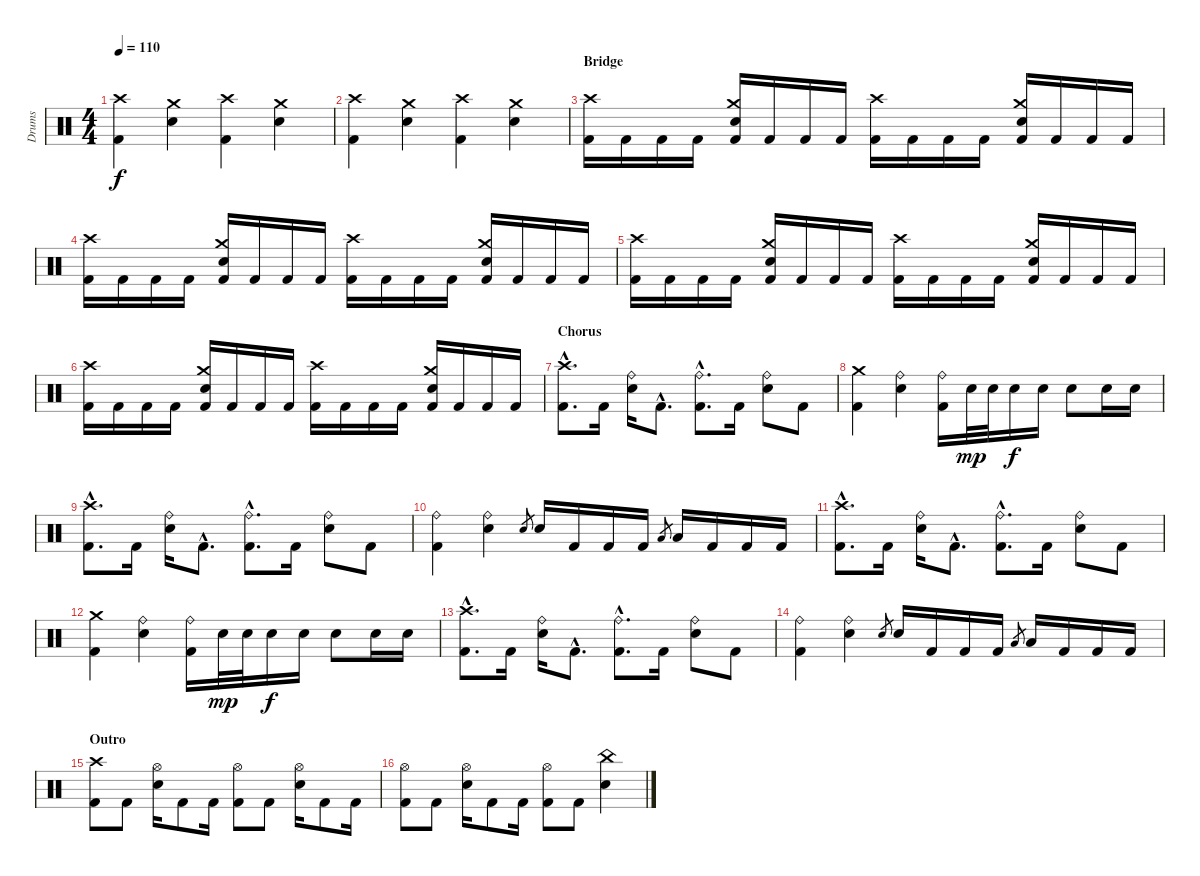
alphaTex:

\track ("Drums" "Drums") {instrument percussion}
\staff {score}
\articulation defaults
\ts (4 4)
\tempo 110
\clef neutral
\ks c
("Crash high (hit)" "Kick (hit) 2").4{dy f} ("Crash medium (hit)" "Electric Snare (hit)").4 ("Crash high (hit)" "Kick (hit) 2").4 ("Crash medium (hit)" "Electric Snare (hit)").4 |
("Crash high (hit)" "Kick (hit) 2").4 ("Crash medium (hit)" "Electric Snare (hit)").4 ("Crash high (hit)" "Kick (hit) 2").4 ("Crash medium (hit)" "Electric Snare (hit)").4 |
\section ("" "Bridge")
("Crash high (hit)" "Kick (hit) 2").16 "Kick (hit) 2".16 "Kick (hit) 2".16 "Kick (hit) 2".16 ("Crash medium (hit)" "Electric Snare (hit)" "Kick (hit) 2").16 "Kick (hit) 2".16 "Kick (hit) 2".16 "Kick (hit) 2".16 ("Crash high (hit)" "Kick (hit) 2").16 "Kick (hit) 2".16 "Kick (hit) 2".16 "Kick (hit) 2".16 ("Crash medium (hit)" "Electric Snare (hit)" "Kick (hit) 2").16 "Kick (hit) 2".16 "Kick (hit) 2".16 "Kick (hit) 2".16 |
("Crash high (hit)" "Kick (hit) 2").16 "Kick (hit) 2".16 "Kick (hit) 2".16 "Kick (hit) 2".16 ("Crash medium (hit)" "Electric Snare (hit)" "Kick (hit) 2").16 "Kick (hit) 2".16 "Kick (hit) 2".16 "Kick (hit) 2".16 ("Crash high (hit)" "Kick (hit) 2").16 "Kick (hit) 2".16 "Kick (hit) 2".16 "Kick (hit) 2".16 ("Crash medium (hit)" "Electric Snare (hit)" "Kick (hit) 2").16 "Kick (hit) 2".16 "Kick (hit) 2".16 "Kick (hit) 2".16 |
("Crash high (hit)" "Kick (hit) 2").16 "Kick (hit) 2".16 "Kick (hit) 2".16 "Kick (hit) 2".16 ("Crash medium (hit)" "Electric Snare (hit)" "Kick (hit) 2").16 "Kick (hit) 2".16 "Kick (hit) 2".16 "Kick (hit) 2".16 ("Crash high (hit)" "Kick (hit) 2").16 "Kick (hit) 2".16 "Kick (hit) 2".16 "Kick (hit) 2".16 ("Crash medium (hit)" "Electric Snare (hit)" "Kick (hit) 2").16 "Kick (hit) 2".16 "Kick (hit) 2".16 "Kick (hit) 2".16 |
("Crash high (hit)" "Kick (hit) 2").16 "Kick (hit) 2".16 "Kick (hit) 2".16 "Kick (hit) 2".16 ("Crash medium (hit)" "Electric Snare (hit)" "Kick (hit) 2").16 "Kick (hit) 2".16 "Kick (hit) 2".16 "Kick (hit) 2".16 ("Crash high (hit)" "Kick (hit) 2").16 "Kick (hit) 2".16 "Kick (hit) 2".16 "Kick (hit) 2".16 ("Crash medium (hit)" "Electric Snare (hit)" "Kick (hit) 2").16 "Kick (hit) 2".16 "Kick (hit) 2".16 "Kick (hit) 2".16 |
\section ("" "Chorus")
("Crash high (hit)"{hac} "Kick (hit) 2"{hac}).8{d} "Kick (hit) 2".16 ("Ride (bell)" "Electric Snare (hit)").16 "Kick (hit) 2"{hac}.8{d} ("Ride (bell)"{hac} "Kick (hit) 2"{hac}).8{d} "Kick (hit) 2".16 ("Ride (bell)" "Electric Snare (hit)").8 "Kick (hit) 2".8 |
("Crash medium (hit)" "Kick (hit) 2").4 ("Ride (bell)" "Electric Snare (hit)").4 ("Ride (bell)" "Kick (hit) 2").16 "Electric Snare (hit)".32{dy mp} "Electric Snare (hit)".32 "Electric Snare (hit)".16{dy f} "Electric Snare (hit)".16 "Electric Snare (hit)".8 "Electric Snare (hit)".16 "Electric Snare (hit)".16 |
("Crash high (hit)"{hac} "Kick (hit) 2"{hac}).8{d} "Kick (hit) 2".16 ("Ride (bell)" "Electric Snare (hit)").16 "Kick (hit) 2"{hac}.8{d} ("Ride (bell)"{hac} "Kick (hit) 2"{hac}).8{d} "Kick (hit) 2".16 ("Ride (bell)" "Electric Snare (hit)").8 "Kick (hit) 2".8 |
("Ride (bell)" "Kick (hit) 2").4 ("Ride (bell)" "Electric Snare (hit)").4 "Electric Snare (hit)".8{gr} "Electric Snare (hit)".16 "Kick (hit) 2".16 "Kick (hit) 2".16 "Kick (hit) 2".16 "Low Tom (hit)".8{gr} "Low Tom (hit)".16 "Kick (hit) 2".16 "Kick (hit) 2".16 "Kick (hit) 2".16 |
("Crash high (hit)"{hac} "Kick (hit) 2"{hac}).8{d} "Kick (hit) 2".16 ("Ride (bell)" "Electric Snare (hit)").16 "Kick (hit) 2"{hac}.8{d} ("Ride (bell)"{hac} "Kick (hit) 2"{hac}).8{d} "Kick (hit) 2".16 ("Ride (bell)" "Electric Snare (hit)").8 "Kick (hit) 2".8 |
("Crash medium (hit)" "Kick (hit) 2").4 ("Ride (bell)" "Electric Snare (hit)").4 ("Ride (bell)" "Kick (hit) 2").16 "Electric Snare (hit)".32{dy mp} "Electric Snare (hit)".32 "Electric Snare (hit)".16{dy f} "Electric Snare (hit)".16 "Electric Snare (hit)".8 "Electric Snare (hit)".16 "Electric Snare (hit)".16 |
("Crash high (hit)"{hac} "Kick (hit) 2"{hac}).8{d} "Kick (hit) 2".16 ("Ride (bell)" "Electric Snare (hit)").16 "Kick (hit) 2"{hac}.8{d} ("Ride (bell)"{hac} "Kick (hit) 2"{hac}).8{d} "Kick (hit) 2".16 ("Ride (bell)" "Electric Snare (hit)").8 "Kick (hit) 2".8 |
("Ride (bell)" "Kick (hit) 2").4 ("Ride (bell)" "Electric Snare (hit)").4 "Electric Snare (hit)".8{gr} "Electric Snare (hit)".16 "Kick (hit) 2".16 "Kick (hit) 2".16 "Kick (hit) 2".16 "Low Tom (hit)".8{gr} "Low Tom (hit)".16 "Kick (hit) 2".16 "Kick (hit) 2".16 "Kick (hit) 2".16 |
\section ("" "Outro")
("Crash high (hit)" "Kick (hit) 2").8 "Kick (hit) 2".8 ("Hi-Hat (open)" "Electric Snare (hit)").16 "Kick (hit) 2".8 "Kick (hit) 2".16 ("Hi-Hat (open)" "Kick (hit) 2").8 "Kick (hit) 2".8 ("Hi-Hat (open)" "Electric Snare (hit)").16 "Kick (hit) 2".8 "Kick (hit) 2".16 |
("Hi-Hat (open)" "Kick (hit) 2").8 "Kick (hit) 2".8 ("Hi-Hat (open)" "Electric Snare (hit)").16 "Kick (hit) 2".8 "Kick (hit) 2".16 ("Hi-Hat (open)" "Kick (hit) 2").8 "Kick (hit) 2".8 ("China (hit)" "Electric Snare (hit)").4
